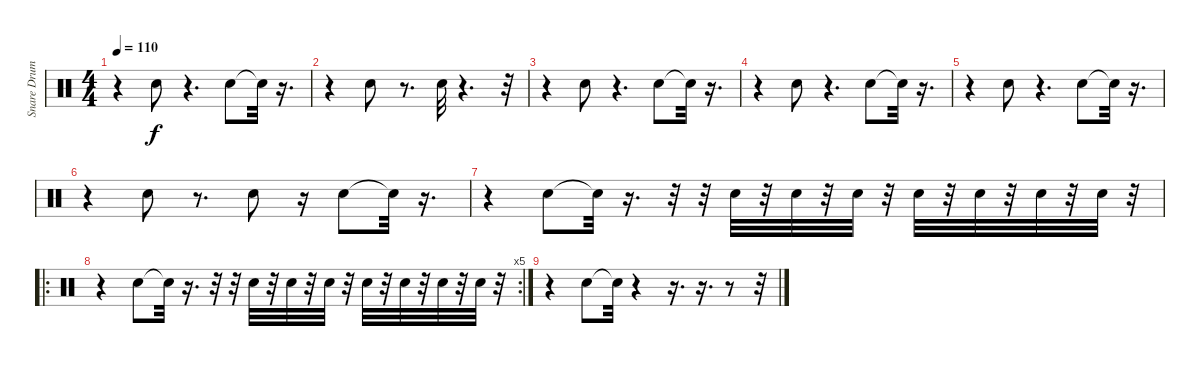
\track ("Snare Drum" "Snare Drum") {instrument percussion}
\staff {score}
\articulation defaults
\ts (4 4)
\tempo 110
\clef neutral
\ks c
r.4{dy f} "Snare (hit) 2".8 r.4{d} "Snare (hit) 2".8 "Snare (hit)"{t}.32 r.16{d} |
r.4 "Snare (hit) 2".8 r.8{d} "Snare (hit) 2".32 r.4{d} r.32 |
r.4 "Snare (hit) 2".8 r.4{d} "Snare (hit) 2".8 "Snare (hit)"{t}.32 r.16{d} |
r.4 "Snare (hit) 2".8 r.4{d} "Snare (hit) 2".8 "Snare (hit)"{t}.32 r.16{d} |
r.4 "Snare (hit) 2".8 r.4{d} "Snare (hit) 2".8 "Snare (hit)"{t}.32 r.16{d} |
r.4 "Snare (hit) 2".8 r.8{d} "Snare (hit) 2".8 r.16 "Snare (hit) 2".8 "Snare (hit)"{t}.32 r.16{d} |
r.4 "Snare (hit) 2".8 "Snare (hit)"{t}.32 r.16{d} r.32 r.32 "Snare (hit) 2".32 r.32 "Snare (hit) 2".32 r.32 "Snare (hit) 2".32 r.32 "Snare (hit) 2".32 r.32 "Snare (hit) 2".32 r.32 "Snare (hit) 2".32 r.32 "Snare (hit) 2".32 r.32 |
\ro
\rc 5
r.4 "Snare (hit) 2".8 "Snare (hit)"{t}.32 r.16{d} r.32 r.32 "Snare (hit) 2".32 r.32 "Snare (hit) 2".32 r.32 "Snare (hit) 2".32 r.32 "Snare (hit) 2".32 r.32 "Snare (hit) 2".32 r.32 "Snare (hit) 2".32 r.32 "Snare (hit) 2".32 r.32 |
r.4 "Snare (hit) 2".8 "Snare (hit)"{t}.32 r.4 r.16{d} r.16{d} r.8 r.32
